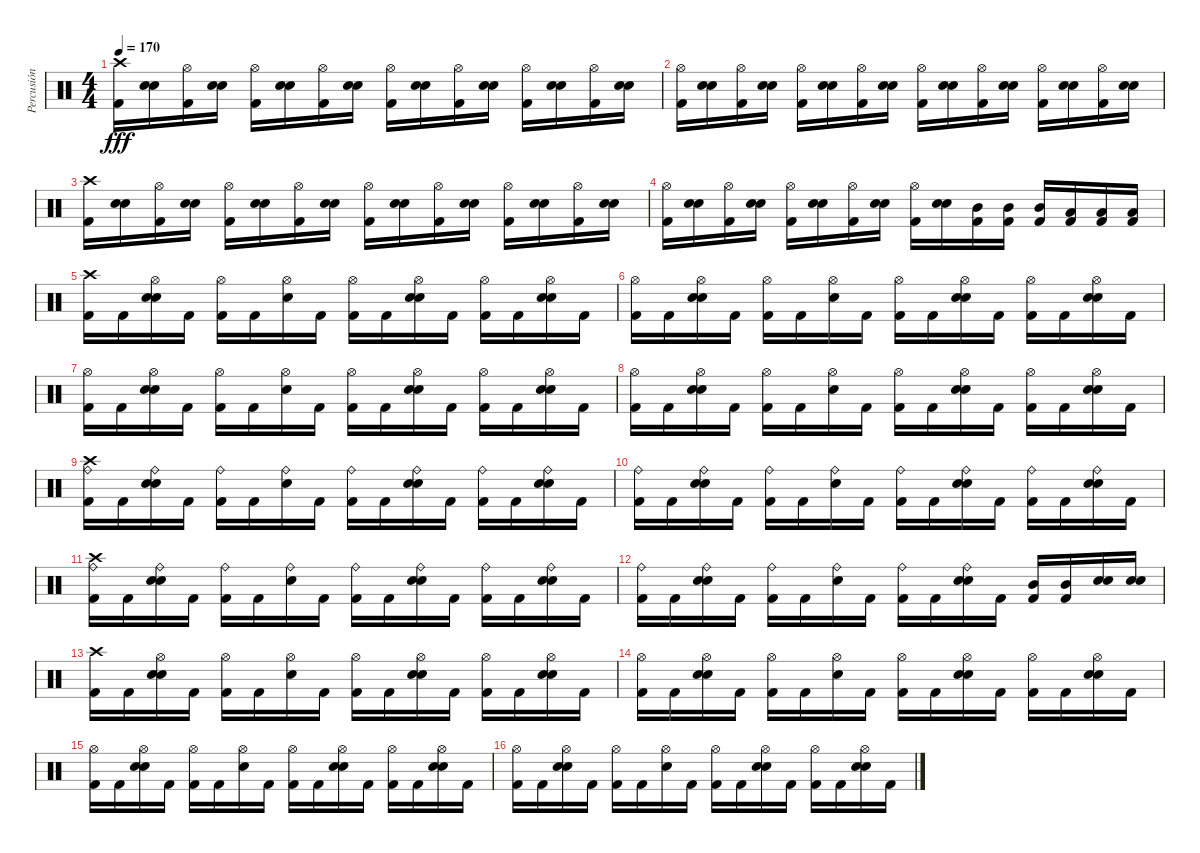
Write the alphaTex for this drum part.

\track ("Percusión" "Percusión") {instrument percussion}
\staff {score}
\articulation defaults
\ts (4 4)
\tempo 170
\clef neutral
\ks c
("Kick (hit) 2" "Crash high (hit)").16{dy fff} ("Snare (hit) 2" "Electric Snare (hit)").16 ("Kick (hit) 2" "Hi-Hat (open)").16 ("Snare (hit) 2" "Electric Snare (hit)").16 ("Kick (hit) 2" "Hi-Hat (open)").16 ("Snare (hit) 2" "Electric Snare (hit)").16 ("Kick (hit) 2" "Hi-Hat (open)").16 ("Snare (hit) 2" "Electric Snare (hit)").16 ("Kick (hit) 2" "Hi-Hat (open)").16 ("Snare (hit) 2" "Electric Snare (hit)").16 ("Kick (hit) 2" "Hi-Hat (open)").16 ("Snare (hit) 2" "Electric Snare (hit)").16 ("Kick (hit) 2" "Hi-Hat (open)").16 ("Snare (hit) 2" "Electric Snare (hit)").16 ("Kick (hit) 2" "Hi-Hat (open)").16 ("Snare (hit) 2" "Electric Snare (hit)").16 |
("Kick (hit) 2" "Hi-Hat (open)").16 ("Snare (hit) 2" "Electric Snare (hit)").16 ("Kick (hit) 2" "Hi-Hat (open)").16 ("Snare (hit) 2" "Electric Snare (hit)").16 ("Kick (hit) 2" "Hi-Hat (open)").16 ("Snare (hit) 2" "Electric Snare (hit)").16 ("Kick (hit) 2" "Hi-Hat (open)").16 ("Snare (hit) 2" "Electric Snare (hit)").16 ("Kick (hit) 2" "Hi-Hat (open)").16 ("Snare (hit) 2" "Electric Snare (hit)").16 ("Kick (hit) 2" "Hi-Hat (open)").16 ("Snare (hit) 2" "Electric Snare (hit)").16 ("Kick (hit) 2" "Hi-Hat (open)").16 ("Snare (hit) 2" "Electric Snare (hit)").16 ("Kick (hit) 2" "Hi-Hat (open)").16 ("Snare (hit) 2" "Electric Snare (hit)").16 |
("Kick (hit) 2" "Crash high (hit)").16 ("Snare (hit) 2" "Electric Snare (hit)").16 ("Kick (hit) 2" "Hi-Hat (open)").16 ("Snare (hit) 2" "Electric Snare (hit)").16 ("Kick (hit) 2" "Hi-Hat (open)").16 ("Snare (hit) 2" "Electric Snare (hit)").16 ("Kick (hit) 2" "Hi-Hat (open)").16 ("Snare (hit) 2" "Electric Snare (hit)").16 ("Kick (hit) 2" "Hi-Hat (open)").16 ("Snare (hit) 2" "Electric Snare (hit)").16 ("Kick (hit) 2" "Hi-Hat (open)").16 ("Snare (hit) 2" "Electric Snare (hit)").16 ("Kick (hit) 2" "Hi-Hat (open)").16 ("Snare (hit) 2" "Electric Snare (hit)").16 ("Kick (hit) 2" "Hi-Hat (open)").16 ("Snare (hit) 2" "Electric Snare (hit)").16 |
("Kick (hit) 2" "Hi-Hat (open)").16 ("Snare (hit) 2" "Electric Snare (hit)").16 ("Kick (hit) 2" "Hi-Hat (open)").16 ("Snare (hit) 2" "Electric Snare (hit)").16 ("Kick (hit) 2" "Hi-Hat (open)").16 ("Snare (hit) 2" "Electric Snare (hit)").16 ("Kick (hit) 2" "Hi-Hat (open)").16 ("Snare (hit) 2" "Electric Snare (hit)").16 ("Kick (hit) 2" "Hi-Hat (open)").16 ("Snare (hit) 2" "Electric Snare (hit)").16 ("Kick (hit) 2" "Mid Tom (hit)").16 ("Kick (hit) 2" "Mid Tom (hit)").16 ("Kick (hit) 2" "Mid Tom (hit)").16 ("Kick (hit) 2" "Low Tom (hit)").16 ("Kick (hit) 2" "Low Tom (hit)").16 ("Kick (hit) 2" "Low Tom (hit)").16 |
("Kick (hit) 2" "Crash high (hit)").16 "Kick (hit) 2".16 ("Snare (hit) 2" "Electric Snare (hit)" "Hi-Hat (open)").16 "Kick (hit) 2".16 ("Kick (hit) 2" "Hi-Hat (open)").16 "Kick (hit) 2".16 ("Snare (hit) 2" "Hi-Hat (open)").16 "Kick (hit) 2".16 ("Kick (hit) 2" "Hi-Hat (open)").16 "Kick (hit) 2".16 ("Snare (hit) 2" "Electric Snare (hit)" "Hi-Hat (open)").16 "Kick (hit) 2".16 ("Kick (hit) 2" "Hi-Hat (open)").16 "Kick (hit) 2".16 ("Snare (hit) 2" "Electric Snare (hit)" "Hi-Hat (open)").16 "Kick (hit) 2".16 |
("Kick (hit) 2" "Hi-Hat (open)").16 "Kick (hit) 2".16 ("Snare (hit) 2" "Electric Snare (hit)" "Hi-Hat (open)").16 "Kick (hit) 2".16 ("Kick (hit) 2" "Hi-Hat (open)").16 "Kick (hit) 2".16 ("Snare (hit) 2" "Hi-Hat (open)").16 "Kick (hit) 2".16 ("Kick (hit) 2" "Hi-Hat (open)").16 "Kick (hit) 2".16 ("Snare (hit) 2" "Electric Snare (hit)" "Hi-Hat (open)").16 "Kick (hit) 2".16 ("Kick (hit) 2" "Hi-Hat (open)").16 "Kick (hit) 2".16 ("Snare (hit) 2" "Electric Snare (hit)" "Hi-Hat (open)").16 "Kick (hit) 2".16 |
("Kick (hit) 2" "Hi-Hat (open)").16 "Kick (hit) 2".16 ("Snare (hit) 2" "Electric Snare (hit)" "Hi-Hat (open)").16 "Kick (hit) 2".16 ("Kick (hit) 2" "Hi-Hat (open)").16 "Kick (hit) 2".16 ("Snare (hit) 2" "Hi-Hat (open)").16 "Kick (hit) 2".16 ("Kick (hit) 2" "Hi-Hat (open)").16 "Kick (hit) 2".16 ("Snare (hit) 2" "Electric Snare (hit)" "Hi-Hat (open)").16 "Kick (hit) 2".16 ("Kick (hit) 2" "Hi-Hat (open)").16 "Kick (hit) 2".16 ("Snare (hit) 2" "Electric Snare (hit)" "Hi-Hat (open)").16 "Kick (hit) 2".16 |
("Kick (hit) 2" "Hi-Hat (open)").16 "Kick (hit) 2".16 ("Snare (hit) 2" "Electric Snare (hit)" "Hi-Hat (open)").16 "Kick (hit) 2".16 ("Kick (hit) 2" "Hi-Hat (open)").16 "Kick (hit) 2".16 ("Snare (hit) 2" "Hi-Hat (open)").16 "Kick (hit) 2".16 ("Kick (hit) 2" "Hi-Hat (open)").16 "Kick (hit) 2".16 ("Snare (hit) 2" "Electric Snare (hit)" "Hi-Hat (open)").16 "Kick (hit) 2".16 ("Kick (hit) 2" "Hi-Hat (open)").16 "Kick (hit) 2".16 ("Snare (hit) 2" "Electric Snare (hit)" "Hi-Hat (open)").16 "Kick (hit) 2".16 |
("Kick (hit) 2" "Ride (bell)" "Crash high (hit)").16 "Kick (hit) 2".16 ("Snare (hit) 2" "Electric Snare (hit)" "Ride (bell)").16 "Kick (hit) 2".16 ("Kick (hit) 2" "Ride (bell)").16 "Kick (hit) 2".16 ("Snare (hit) 2" "Ride (bell)").16 "Kick (hit) 2".16 ("Kick (hit) 2" "Ride (bell)").16 "Kick (hit) 2".16 ("Snare (hit) 2" "Electric Snare (hit)" "Ride (bell)").16 "Kick (hit) 2".16 ("Kick (hit) 2" "Ride (bell)").16 "Kick (hit) 2".16 ("Snare (hit) 2" "Electric Snare (hit)" "Ride (bell)").16 "Kick (hit) 2".16 |
("Kick (hit) 2" "Ride (bell)").16 "Kick (hit) 2".16 ("Snare (hit) 2" "Electric Snare (hit)" "Ride (bell)").16 "Kick (hit) 2".16 ("Kick (hit) 2" "Ride (bell)").16 "Kick (hit) 2".16 ("Snare (hit) 2" "Ride (bell)").16 "Kick (hit) 2".16 ("Kick (hit) 2" "Ride (bell)").16 "Kick (hit) 2".16 ("Snare (hit) 2" "Electric Snare (hit)" "Ride (bell)").16 "Kick (hit) 2".16 ("Kick (hit) 2" "Ride (bell)").16 "Kick (hit) 2".16 ("Snare (hit) 2" "Electric Snare (hit)" "Ride (bell)").16 "Kick (hit) 2".16 |
("Kick (hit) 2" "Ride (bell)" "Crash high (hit)").16 "Kick (hit) 2".16 ("Snare (hit) 2" "Electric Snare (hit)" "Ride (bell)").16 "Kick (hit) 2".16 ("Kick (hit) 2" "Ride (bell)").16 "Kick (hit) 2".16 ("Snare (hit) 2" "Ride (bell)").16 "Kick (hit) 2".16 ("Kick (hit) 2" "Ride (bell)").16 "Kick (hit) 2".16 ("Snare (hit) 2" "Electric Snare (hit)" "Ride (bell)").16 "Kick (hit) 2".16 ("Kick (hit) 2" "Ride (bell)").16 "Kick (hit) 2".16 ("Snare (hit) 2" "Electric Snare (hit)" "Ride (bell)").16 "Kick (hit) 2".16 |
("Kick (hit) 2" "Ride (bell)").16 "Kick (hit) 2".16 ("Snare (hit) 2" "Electric Snare (hit)" "Ride (bell)").16 "Kick (hit) 2".16 ("Kick (hit) 2" "Ride (bell)").16 "Kick (hit) 2".16 ("Snare (hit) 2" "Ride (bell)").16 "Kick (hit) 2".16 ("Kick (hit) 2" "Ride (bell)").16 "Kick (hit) 2".16 ("Snare (hit) 2" "Electric Snare (hit)" "Ride (bell)").16 "Kick (hit) 2".16 ("Kick (hit) 2" "Mid Tom (hit)").16 ("Kick (hit) 2" "Mid Tom (hit)").16 ("Snare (hit) 2" "Electric Snare (hit)").16 ("Snare (hit) 2" "Electric Snare (hit)").16 |
("Kick (hit) 2" "Crash high (hit)").16 "Kick (hit) 2".16 ("Snare (hit) 2" "Electric Snare (hit)" "Hi-Hat (open)").16 "Kick (hit) 2".16 ("Kick (hit) 2" "Hi-Hat (open)").16 "Kick (hit) 2".16 ("Snare (hit) 2" "Hi-Hat (open)").16 "Kick (hit) 2".16 ("Kick (hit) 2" "Hi-Hat (open)").16 "Kick (hit) 2".16 ("Snare (hit) 2" "Electric Snare (hit)" "Hi-Hat (open)").16 "Kick (hit) 2".16 ("Kick (hit) 2" "Hi-Hat (open)").16 "Kick (hit) 2".16 ("Snare (hit) 2" "Electric Snare (hit)" "Hi-Hat (open)").16 "Kick (hit) 2".16 |
("Kick (hit) 2" "Hi-Hat (open)").16 "Kick (hit) 2".16 ("Snare (hit) 2" "Electric Snare (hit)" "Hi-Hat (open)").16 "Kick (hit) 2".16 ("Kick (hit) 2" "Hi-Hat (open)").16 "Kick (hit) 2".16 ("Snare (hit) 2" "Hi-Hat (open)").16 "Kick (hit) 2".16 ("Kick (hit) 2" "Hi-Hat (open)").16 "Kick (hit) 2".16 ("Snare (hit) 2" "Electric Snare (hit)" "Hi-Hat (open)").16 "Kick (hit) 2".16 ("Kick (hit) 2" "Hi-Hat (open)").16 "Kick (hit) 2".16 ("Snare (hit) 2" "Electric Snare (hit)" "Hi-Hat (open)").16 "Kick (hit) 2".16 |
("Kick (hit) 2" "Hi-Hat (open)").16 "Kick (hit) 2".16 ("Snare (hit) 2" "Electric Snare (hit)" "Hi-Hat (open)").16 "Kick (hit) 2".16 ("Kick (hit) 2" "Hi-Hat (open)").16 "Kick (hit) 2".16 ("Snare (hit) 2" "Hi-Hat (open)").16 "Kick (hit) 2".16 ("Kick (hit) 2" "Hi-Hat (open)").16 "Kick (hit) 2".16 ("Snare (hit) 2" "Electric Snare (hit)" "Hi-Hat (open)").16 "Kick (hit) 2".16 ("Kick (hit) 2" "Hi-Hat (open)").16 "Kick (hit) 2".16 ("Snare (hit) 2" "Electric Snare (hit)" "Hi-Hat (open)").16 "Kick (hit) 2".16 |
("Kick (hit) 2" "Hi-Hat (open)").16 "Kick (hit) 2".16 ("Snare (hit) 2" "Electric Snare (hit)" "Hi-Hat (open)").16 "Kick (hit) 2".16 ("Kick (hit) 2" "Hi-Hat (open)").16 "Kick (hit) 2".16 ("Snare (hit) 2" "Hi-Hat (open)").16 "Kick (hit) 2".16 ("Kick (hit) 2" "Hi-Hat (open)").16 "Kick (hit) 2".16 ("Snare (hit) 2" "Electric Snare (hit)" "Hi-Hat (open)").16 "Kick (hit) 2".16 ("Kick (hit) 2" "Hi-Hat (open)").16 "Kick (hit) 2".16 ("Snare (hit) 2" "Electric Snare (hit)" "Hi-Hat (open)").16 "Kick (hit) 2".16
